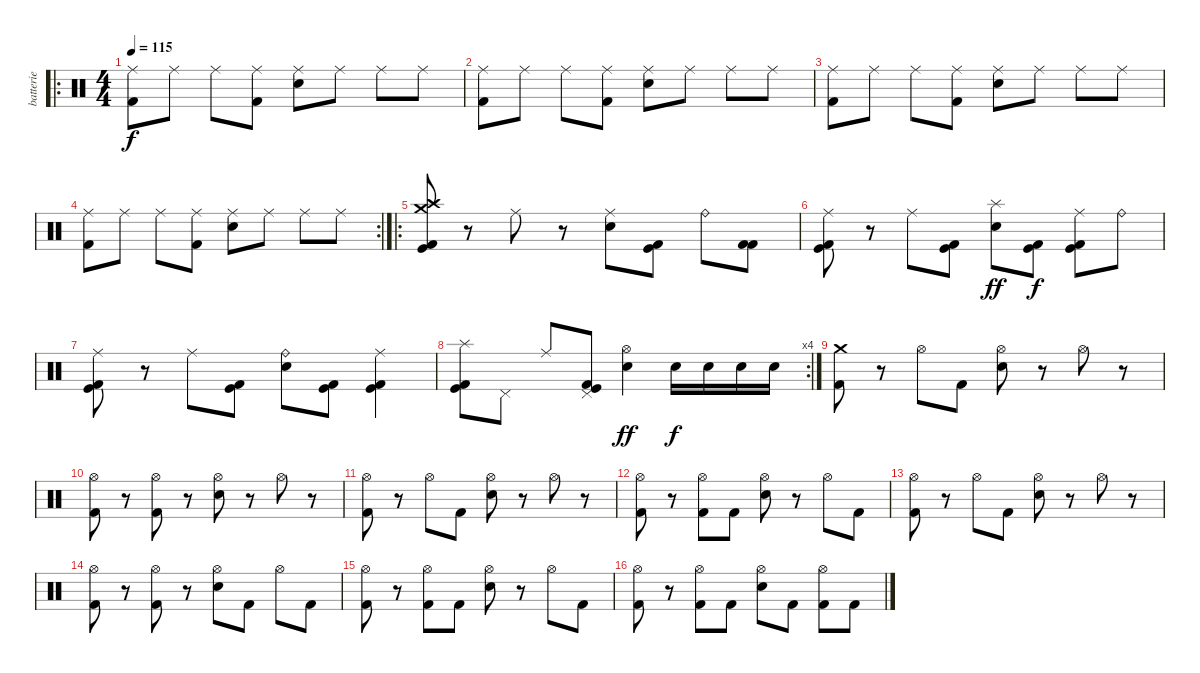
\track ("batterie" "batterie") {instrument percussion}
\staff {score}
\articulation defaults
\ro
\ts (4 4)
\tempo 115
\clef neutral
\ks c
("Ride (middle)" "Kick (hit) 2").8{dy f} "Ride (middle)".8 "Ride (middle)".8 ("Ride (middle)" "Kick (hit) 2").8 ("Ride (middle)" "Electric Snare (hit)").8 "Ride (middle)".8 "Ride (middle)".8 "Ride (middle)".8 |
("Ride (middle)" "Kick (hit) 2").8 "Ride (middle)".8 "Ride (middle)".8 ("Ride (middle)" "Kick (hit) 2").8 ("Ride (middle)" "Electric Snare (hit)").8 "Ride (middle)".8 "Ride (middle)".8 "Ride (middle)".8 |
("Ride (middle)" "Kick (hit) 2").8 "Ride (middle)".8 "Ride (middle)".8 ("Ride (middle)" "Kick (hit) 2").8 ("Ride (middle)" "Electric Snare (hit)").8 "Ride (middle)".8 "Ride (middle)".8 "Ride (middle)".8 |
\rc 2
("Ride (middle)" "Kick (hit) 2").8 "Ride (middle)".8 "Ride (middle)".8 ("Ride (middle)" "Kick (hit) 2").8 ("Ride (middle)" "Electric Snare (hit)").8 "Ride (middle)".8 "Ride (middle)".8 "Ride (middle)".8 |
\ro
("Crash high (hit)" "Crash medium (hit)" "Kick (hit)" "Kick (hit) 2").8 r.8 "Ride (middle)".8 r.8 ("Ride (middle)" "Electric Snare (hit)").8 ("Kick (hit)" "Kick (hit) 2").8 "Ride (bell)".8 ("Kick (hit) 2" "Kick (hit) 2").8 |
("Ride (middle)" "Kick (hit)" "Kick (hit) 2").8 r.8 "Ride (middle)".8 ("Kick (hit)" "Kick (hit) 2").8 ("Splash (hit)" "Electric Snare (hit)").8{dy ff} ("Kick (hit)" "Kick (hit) 2").8{dy f} ("Ride (middle)" "Kick (hit)" "Kick (hit) 2").8 "Ride (bell)".8 |
("Ride (middle)" "Kick (hit)" "Kick (hit) 2").8 r.8 "Ride (middle)".8 ("Kick (hit)" "Kick (hit) 2").8 ("Ride (bell)" "Electric Snare (hit)").8 ("Kick (hit)" "Kick (hit) 2").8 ("Ride (middle)" "Kick (hit)" "Kick (hit) 2").4 |
\rc 4
("Splash (hit)" "Kick (hit)" "Kick (hit) 2").8 "Pedal Hi-Hat (hit)".8 "Ride (middle)".8 ("Pedal Hi-Hat (hit)" "Kick (hit)" "Kick (hit) 2").8 ("Hi-Hat (open)" "Electric Snare (hit)").4{dy ff} "Electric Snare (hit)".16{dy f} "Electric Snare (hit)".16 "Electric Snare (hit)".16 "Electric Snare (hit)".16 |
("Crash medium (hit)" "Kick (hit) 2").8 r.8 "Hi-Hat (open)".8 "Kick (hit) 2".8 ("Hi-Hat (open)" "Electric Snare (hit)").8 r.8 "Hi-Hat (open)".8 r.8 |
("Hi-Hat (open)" "Kick (hit) 2").8 r.8 ("Hi-Hat (open)" "Kick (hit) 2").8 r.8 ("Hi-Hat (open)" "Electric Snare (hit)").8 r.8 "Hi-Hat (open)".8 r.8 |
("Hi-Hat (open)" "Kick (hit) 2").8 r.8 "Hi-Hat (open)".8 "Kick (hit) 2".8 ("Hi-Hat (open)" "Electric Snare (hit)").8 r.8 "Hi-Hat (open)".8 r.8 |
("Hi-Hat (open)" "Kick (hit) 2").8 r.8 ("Hi-Hat (open)" "Kick (hit) 2").8 "Kick (hit) 2".8 ("Hi-Hat (open)" "Electric Snare (hit)").8 r.8 "Hi-Hat (open)".8 "Kick (hit) 2".8 |
("Hi-Hat (open)" "Kick (hit) 2").8 r.8 "Hi-Hat (open)".8 "Kick (hit) 2".8 ("Hi-Hat (open)" "Electric Snare (hit)").8 r.8 "Hi-Hat (open)".8 r.8 |
("Hi-Hat (open)" "Kick (hit) 2").8 r.8 ("Hi-Hat (open)" "Kick (hit) 2").8 r.8 ("Hi-Hat (open)" "Electric Snare (hit)").8 "Kick (hit) 2".8 "Hi-Hat (open)".8 "Kick (hit) 2".8 |
("Hi-Hat (open)" "Kick (hit) 2").8 r.8 ("Hi-Hat (open)" "Kick (hit) 2").8 "Kick (hit) 2".8 ("Hi-Hat (open)" "Electric Snare (hit)").8 r.8 "Hi-Hat (open)".8 "Kick (hit) 2".8 |
("Hi-Hat (open)" "Kick (hit) 2").8 r.8 ("Hi-Hat (open)" "Kick (hit) 2").8 "Kick (hit) 2".8 ("Hi-Hat (open)" "Electric Snare (hit)").8 "Kick (hit) 2".8 ("Hi-Hat (open)" "Kick (hit) 2").8 "Kick (hit) 2".8
